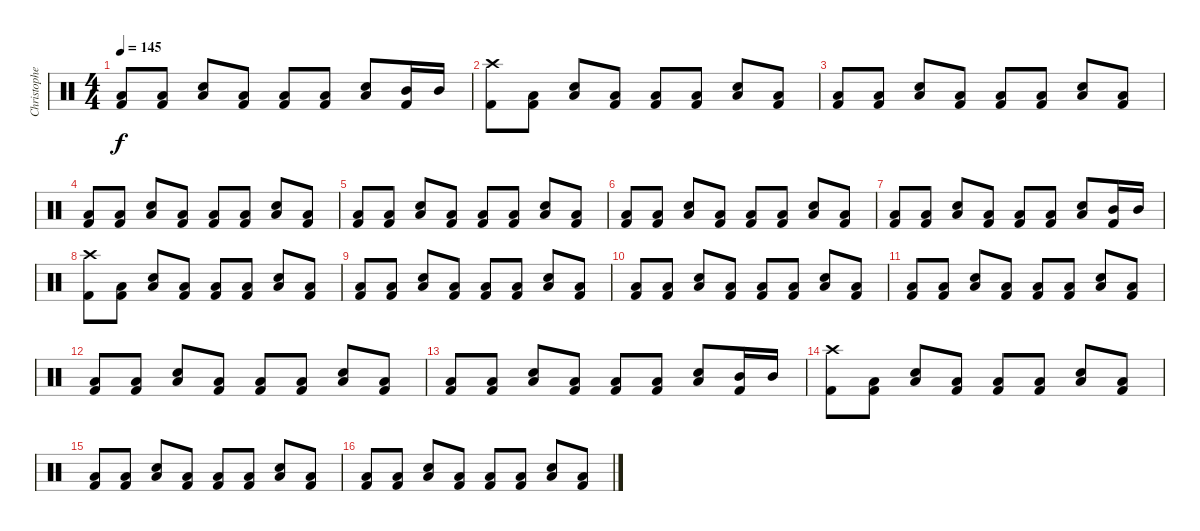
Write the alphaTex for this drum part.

\track ("Christopher - Drums" "Christophe") {instrument percussion}
\staff {score}
\articulation defaults
\ts (4 4)
\tempo 145
\clef neutral
\ks c
("Low Tom (hit)" "Kick (hit) 2").8{dy f} ("Low Tom (hit)" "Kick (hit) 2").8 ("Low Tom (hit)" "Electric Snare (hit)").8 ("Low Tom (hit)" "Kick (hit) 2").8 ("Low Tom (hit)" "Kick (hit) 2").8 ("Low Tom (hit)" "Kick (hit) 2").8 ("Low Tom (hit)" "Electric Snare (hit)").8 ("Mid Tom (hit)" "Kick (hit) 2").16 "Mid Tom (hit)".16 |
("Crash high (hit)" "Kick (hit) 2").8 ("Low Tom (hit)" "Kick (hit) 2").8 ("Low Tom (hit)" "Electric Snare (hit)").8 ("Low Tom (hit)" "Kick (hit) 2").8 ("Low Tom (hit)" "Kick (hit) 2").8 ("Low Tom (hit)" "Kick (hit) 2").8 ("Low Tom (hit)" "Electric Snare (hit)").8 ("Low Tom (hit)" "Kick (hit) 2").8 |
("Low Tom (hit)" "Kick (hit) 2").8 ("Low Tom (hit)" "Kick (hit) 2").8 ("Low Tom (hit)" "Electric Snare (hit)").8 ("Low Tom (hit)" "Kick (hit) 2").8 ("Low Tom (hit)" "Kick (hit) 2").8 ("Low Tom (hit)" "Kick (hit) 2").8 ("Low Tom (hit)" "Electric Snare (hit)").8 ("Low Tom (hit)" "Kick (hit) 2").8 |
("Low Tom (hit)" "Kick (hit) 2").8 ("Low Tom (hit)" "Kick (hit) 2").8 ("Low Tom (hit)" "Electric Snare (hit)").8 ("Low Tom (hit)" "Kick (hit) 2").8 ("Low Tom (hit)" "Kick (hit) 2").8 ("Low Tom (hit)" "Kick (hit) 2").8 ("Low Tom (hit)" "Electric Snare (hit)").8 ("Low Tom (hit)" "Kick (hit) 2").8 |
("Low Tom (hit)" "Kick (hit) 2").8 ("Low Tom (hit)" "Kick (hit) 2").8 ("Low Tom (hit)" "Electric Snare (hit)").8 ("Low Tom (hit)" "Kick (hit) 2").8 ("Low Tom (hit)" "Kick (hit) 2").8 ("Low Tom (hit)" "Kick (hit) 2").8 ("Low Tom (hit)" "Electric Snare (hit)").8 ("Low Tom (hit)" "Kick (hit) 2").8 |
("Low Tom (hit)" "Kick (hit) 2").8 ("Low Tom (hit)" "Kick (hit) 2").8 ("Low Tom (hit)" "Electric Snare (hit)").8 ("Low Tom (hit)" "Kick (hit) 2").8 ("Low Tom (hit)" "Kick (hit) 2").8 ("Low Tom (hit)" "Kick (hit) 2").8 ("Low Tom (hit)" "Electric Snare (hit)").8 ("Low Tom (hit)" "Kick (hit) 2").8 |
("Low Tom (hit)" "Kick (hit) 2").8 ("Low Tom (hit)" "Kick (hit) 2").8 ("Low Tom (hit)" "Electric Snare (hit)").8 ("Low Tom (hit)" "Kick (hit) 2").8 ("Low Tom (hit)" "Kick (hit) 2").8 ("Low Tom (hit)" "Kick (hit) 2").8 ("Low Tom (hit)" "Electric Snare (hit)").8 ("Mid Tom (hit)" "Kick (hit) 2").16 "Mid Tom (hit)".16 |
("Crash high (hit)" "Kick (hit) 2").8 ("Low Tom (hit)" "Kick (hit) 2").8 ("Low Tom (hit)" "Electric Snare (hit)").8 ("Low Tom (hit)" "Kick (hit) 2").8 ("Low Tom (hit)" "Kick (hit) 2").8 ("Low Tom (hit)" "Kick (hit) 2").8 ("Low Tom (hit)" "Electric Snare (hit)").8 ("Low Tom (hit)" "Kick (hit) 2").8 |
("Low Tom (hit)" "Kick (hit) 2").8 ("Low Tom (hit)" "Kick (hit) 2").8 ("Low Tom (hit)" "Electric Snare (hit)").8 ("Low Tom (hit)" "Kick (hit) 2").8 ("Low Tom (hit)" "Kick (hit) 2").8 ("Low Tom (hit)" "Kick (hit) 2").8 ("Low Tom (hit)" "Electric Snare (hit)").8 ("Low Tom (hit)" "Kick (hit) 2").8 |
("Low Tom (hit)" "Kick (hit) 2").8 ("Low Tom (hit)" "Kick (hit) 2").8 ("Low Tom (hit)" "Electric Snare (hit)").8 ("Low Tom (hit)" "Kick (hit) 2").8 ("Low Tom (hit)" "Kick (hit) 2").8 ("Low Tom (hit)" "Kick (hit) 2").8 ("Low Tom (hit)" "Electric Snare (hit)").8 ("Low Tom (hit)" "Kick (hit) 2").8 |
("Low Tom (hit)" "Kick (hit) 2").8 ("Low Tom (hit)" "Kick (hit) 2").8 ("Low Tom (hit)" "Electric Snare (hit)").8 ("Low Tom (hit)" "Kick (hit) 2").8 ("Low Tom (hit)" "Kick (hit) 2").8 ("Low Tom (hit)" "Kick (hit) 2").8 ("Low Tom (hit)" "Electric Snare (hit)").8 ("Low Tom (hit)" "Kick (hit) 2").8 |
("Low Tom (hit)" "Kick (hit) 2").8 ("Low Tom (hit)" "Kick (hit) 2").8 ("Low Tom (hit)" "Electric Snare (hit)").8 ("Low Tom (hit)" "Kick (hit) 2").8 ("Low Tom (hit)" "Kick (hit) 2").8 ("Low Tom (hit)" "Kick (hit) 2").8 ("Low Tom (hit)" "Electric Snare (hit)").8 ("Low Tom (hit)" "Kick (hit) 2").8 |
("Low Tom (hit)" "Kick (hit) 2").8 ("Low Tom (hit)" "Kick (hit) 2").8 ("Low Tom (hit)" "Electric Snare (hit)").8 ("Low Tom (hit)" "Kick (hit) 2").8 ("Low Tom (hit)" "Kick (hit) 2").8 ("Low Tom (hit)" "Kick (hit) 2").8 ("Low Tom (hit)" "Electric Snare (hit)").8 ("Mid Tom (hit)" "Kick (hit) 2").16 "Mid Tom (hit)".16 |
("Crash high (hit)" "Kick (hit) 2").8 ("Low Tom (hit)" "Kick (hit) 2").8 ("Low Tom (hit)" "Electric Snare (hit)").8 ("Low Tom (hit)" "Kick (hit) 2").8 ("Low Tom (hit)" "Kick (hit) 2").8 ("Low Tom (hit)" "Kick (hit) 2").8 ("Low Tom (hit)" "Electric Snare (hit)").8 ("Low Tom (hit)" "Kick (hit) 2").8 |
("Low Tom (hit)" "Kick (hit) 2").8 ("Low Tom (hit)" "Kick (hit) 2").8 ("Low Tom (hit)" "Electric Snare (hit)").8 ("Low Tom (hit)" "Kick (hit) 2").8 ("Low Tom (hit)" "Kick (hit) 2").8 ("Low Tom (hit)" "Kick (hit) 2").8 ("Low Tom (hit)" "Electric Snare (hit)").8 ("Low Tom (hit)" "Kick (hit) 2").8 |
("Low Tom (hit)" "Kick (hit) 2").8 ("Low Tom (hit)" "Kick (hit) 2").8 ("Low Tom (hit)" "Electric Snare (hit)").8 ("Low Tom (hit)" "Kick (hit) 2").8 ("Low Tom (hit)" "Kick (hit) 2").8 ("Low Tom (hit)" "Kick (hit) 2").8 ("Low Tom (hit)" "Electric Snare (hit)").8 ("Low Tom (hit)" "Kick (hit) 2").8
